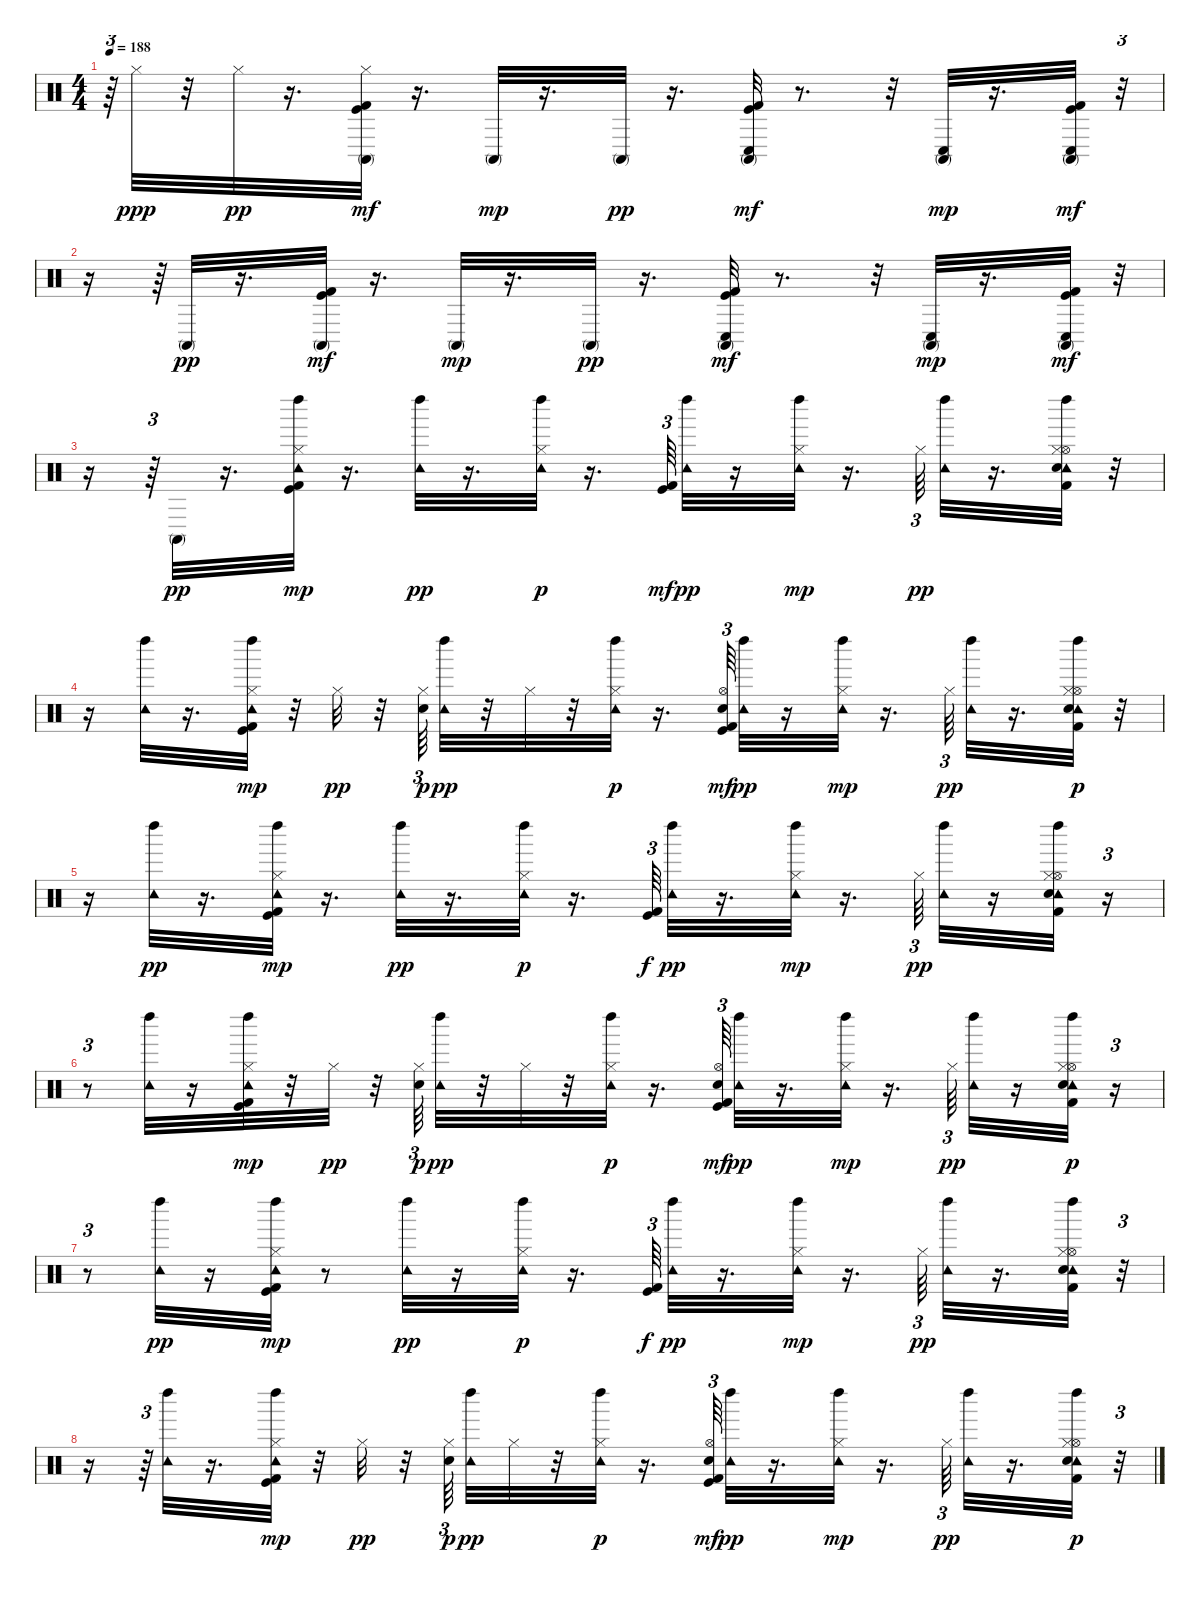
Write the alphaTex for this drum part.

\track "" {instrument percussion}
\staff {score}
\articulation defaults
\ts (4 4)
\tempo 188
\clef neutral
\ks c
r.64{tu (3 2) dy mf} "Hi-Hat (closed)".32{dy ppp} r.32 "Hi-Hat (closed)".32{dy pp} r.16{d} ("Kick (hit) 2" "Hi-Hat (closed)" "Conga high (mute)" "Kick (hit)").32{dy mf} r.16{d} "Conga high (mute)".32{dy mp} r.16{d} "Conga high (mute)".32{dy pp} r.16{d} ("Kick (hit) 2" "Conga high (mute)" "Conga low (hit)" "Kick (hit)").32{dy mf} r.8{d} r.32 ("Conga high (mute)" "Conga low (hit)").32{dy mp} r.16{d} ("Kick (hit) 2" "Conga high (mute)" "Conga low (hit)" "Kick (hit)").32{dy mf} r.32{tu (3 2)} |
r.16 r.64{tu (3 2)} "Conga high (mute)".32{dy pp} r.16{d} ("Kick (hit) 2" "Conga high (mute)" "Kick (hit)").32{dy mf} r.16{d} "Conga high (mute)".32{dy mp} r.16{d} "Conga high (mute)".32{dy pp} r.16{d} ("Kick (hit) 2" "Conga high (mute)" "Conga low (hit)" "Kick (hit)").32{dy mf} r.8{d} r.32 ("Conga high (mute)" "Conga low (hit)").32{dy mp} r.16{d} ("Kick (hit) 2" "Conga high (mute)" "Conga low (hit)" "Kick (hit)").32{dy mf} r.32{tu (3 2)} |
r.16 r.64{tu (3 2)} "Conga high (mute)".32{dy pp} r.16{d} ("Kick (hit) 2" "Hi-Hat (closed)" "Tambourine (hit)" "Left Maraca (hit)" "Kick (hit)").32{dy mp} r.16{d} ("Tambourine (hit)" "Left Maraca (hit)").32{dy pp} r.16{d} ("Hi-Hat (closed)" "Tambourine (hit)" "Left Maraca (hit)").32{dy p} r.16{d} ("Kick (hit) 2" "Kick (hit)").64{tu (3 2) dy mf} ("Tambourine (hit)" "Left Maraca (hit)").32{dy pp} r.16 ("Hi-Hat (closed)" "Tambourine (hit)" "Left Maraca (hit)").32{dy mp} r.16{d} "Hi-Hat (closed)".64{tu (3 2) dy pp} ("Tambourine (hit)" "Left Maraca (hit)").32 r.16{d} ("Kick (hit) 2" "Hi-Hat (open)" "Tambourine (hit)" "Left Maraca (hit)" "Electric Snare (hit)" "Hi-Hat (closed)").32 r.32 |
r.16 ("Tambourine (hit)" "Left Maraca (hit)").32 r.16{d} ("Kick (hit) 2" "Hi-Hat (closed)" "Tambourine (hit)" "Left Maraca (hit)" "Kick (hit)").32{dy mp} r.32 "Hi-Hat (closed)".32{dy pp} r.32 ("Electric Snare (hit)" "Hi-Hat (closed)").64{tu (3 2) dy p} ("Tambourine (hit)" "Left Maraca (hit)").32{dy pp} r.32 "Hi-Hat (closed)".32 r.32 ("Hi-Hat (closed)" "Tambourine (hit)" "Left Maraca (hit)").32{dy p} r.16{d} ("Kick (hit) 2" "Hi-Hat (open)" "Electric Snare (hit)" "Kick (hit)").64{tu (3 2) dy mf} ("Tambourine (hit)" "Left Maraca (hit)").32{dy pp} r.16 ("Hi-Hat (closed)" "Tambourine (hit)" "Left Maraca (hit)").32{dy mp} r.16{d} "Hi-Hat (closed)".64{tu (3 2) dy pp} ("Tambourine (hit)" "Left Maraca (hit)").32 r.16{d} ("Kick (hit) 2" "Hi-Hat (open)" "Tambourine (hit)" "Left Maraca (hit)" "Electric Snare (hit)" "Hi-Hat (closed)").32{dy p} r.32 |
r.16 ("Tambourine (hit)" "Left Maraca (hit)").32{dy pp} r.16{d} ("Kick (hit) 2" "Hi-Hat (closed)" "Tambourine (hit)" "Left Maraca (hit)" "Kick (hit)").32{dy mp} r.16{d} ("Tambourine (hit)" "Left Maraca (hit)").32{dy pp} r.16{d} ("Hi-Hat (closed)" "Tambourine (hit)" "Left Maraca (hit)").32{dy p} r.16{d} ("Kick (hit) 2" "Kick (hit)").64{tu (3 2) dy f} ("Tambourine (hit)" "Left Maraca (hit)").32{dy pp} r.16{d} ("Hi-Hat (closed)" "Tambourine (hit)" "Left Maraca (hit)").32{dy mp} r.16{d} "Hi-Hat (closed)".64{tu (3 2) dy pp} ("Tambourine (hit)" "Left Maraca (hit)").32 r.16 ("Kick (hit) 2" "Hi-Hat (open)" "Tambourine (hit)" "Left Maraca (hit)" "Electric Snare (hit)" "Hi-Hat (closed)").32 r.16{tu (3 2)} |
r.8{tu (3 2)} ("Tambourine (hit)" "Left Maraca (hit)").32 r.16 ("Kick (hit) 2" "Hi-Hat (closed)" "Tambourine (hit)" "Left Maraca (hit)" "Kick (hit)").32{dy mp} r.32 "Hi-Hat (closed)".32{dy pp} r.32 ("Electric Snare (hit)" "Hi-Hat (closed)").64{tu (3 2) dy p} ("Tambourine (hit)" "Left Maraca (hit)").32{dy pp} r.32 "Hi-Hat (closed)".32 r.32 ("Hi-Hat (closed)" "Tambourine (hit)" "Left Maraca (hit)").32{dy p} r.16{d} ("Kick (hit) 2" "Hi-Hat (open)" "Electric Snare (hit)" "Kick (hit)").64{tu (3 2) dy mf} ("Tambourine (hit)" "Left Maraca (hit)").32{dy pp} r.16{d} ("Hi-Hat (closed)" "Tambourine (hit)" "Left Maraca (hit)").32{dy mp} r.16{d} "Hi-Hat (closed)".64{tu (3 2) dy pp} ("Tambourine (hit)" "Left Maraca (hit)").32 r.16 ("Kick (hit) 2" "Hi-Hat (open)" "Tambourine (hit)" "Left Maraca (hit)" "Electric Snare (hit)" "Hi-Hat (closed)").32{dy p} r.16{tu (3 2)} |
r.8{tu (3 2)} ("Tambourine (hit)" "Left Maraca (hit)").32{dy pp} r.16 ("Kick (hit) 2" "Hi-Hat (closed)" "Tambourine (hit)" "Left Maraca (hit)" "Kick (hit)").32{dy mp} r.8 ("Tambourine (hit)" "Left Maraca (hit)").32{dy pp} r.16 ("Hi-Hat (closed)" "Tambourine (hit)" "Left Maraca (hit)").32{dy p} r.16{d} ("Kick (hit) 2" "Kick (hit)").64{tu (3 2) dy f} ("Tambourine (hit)" "Left Maraca (hit)").32{dy pp} r.16{d} ("Hi-Hat (closed)" "Tambourine (hit)" "Left Maraca (hit)").32{dy mp} r.16{d} "Hi-Hat (closed)".64{tu (3 2) dy pp} ("Tambourine (hit)" "Left Maraca (hit)").32 r.16{d} ("Kick (hit) 2" "Hi-Hat (open)" "Tambourine (hit)" "Left Maraca (hit)" "Electric Snare (hit)" "Hi-Hat (closed)").32 r.32{tu (3 2)} |
r.16 r.64{tu (3 2)} ("Tambourine (hit)" "Left Maraca (hit)").32 r.16{d} ("Kick (hit) 2" "Hi-Hat (closed)" "Tambourine (hit)" "Left Maraca (hit)" "Kick (hit)").32{dy mp} r.32 "Hi-Hat (closed)".32{dy pp} r.32 ("Electric Snare (hit)" "Hi-Hat (closed)").64{tu (3 2) dy p beam splitsecondary} ("Tambourine (hit)" "Left Maraca (hit)").32{dy pp} "Hi-Hat (closed)".32 r.32 ("Hi-Hat (closed)" "Tambourine (hit)" "Left Maraca (hit)").32{dy p} r.16{d} ("Kick (hit) 2" "Hi-Hat (open)" "Electric Snare (hit)" "Kick (hit)").64{tu (3 2) dy mf} ("Tambourine (hit)" "Left Maraca (hit)").32{dy pp} r.16{d} ("Hi-Hat (closed)" "Tambourine (hit)" "Left Maraca (hit)").32{dy mp} r.16{d} "Hi-Hat (closed)".64{tu (3 2) dy pp} ("Tambourine (hit)" "Left Maraca (hit)").32 r.16{d} ("Kick (hit) 2" "Hi-Hat (open)" "Tambourine (hit)" "Left Maraca (hit)" "Electric Snare (hit)" "Hi-Hat (closed)").32{dy p} r.32{tu (3 2)}
